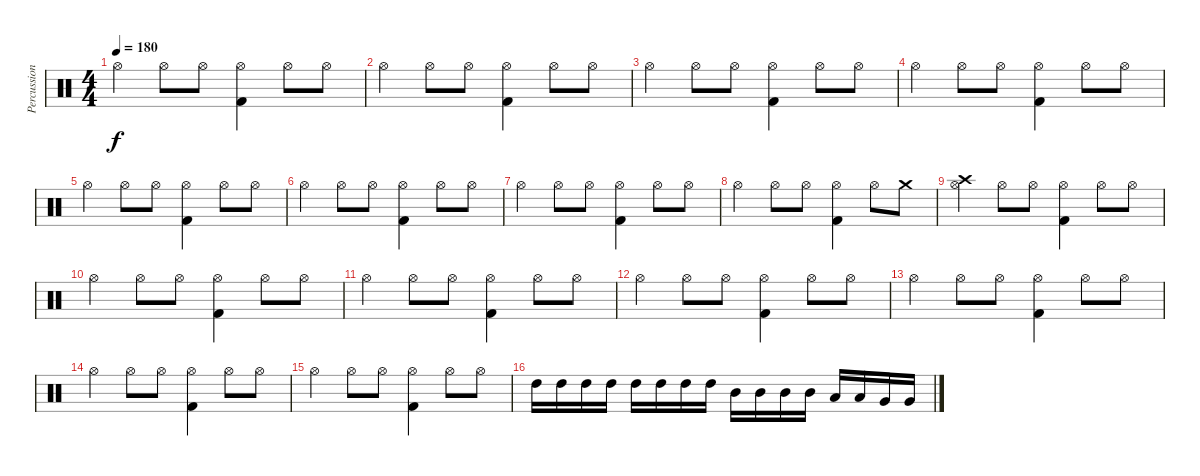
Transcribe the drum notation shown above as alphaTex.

\track ("Percussion" "Percussion") {instrument percussion}
\staff {score}
\articulation defaults
\ts (4 4)
\tempo 180
\clef neutral
\ks c "Hi-Hat (open)".4{dy f} "Hi-Hat (open)".8 "Hi-Hat (open)".8
("Hi-Hat (open)" "Kick (hit) 2").4 "Hi-Hat (open)".8 "Hi-Hat (open)".8 |
"Hi-Hat (open)".4 "Hi-Hat (open)".8 "Hi-Hat (open)".8 ("Hi-Hat (open)" "Kick (hit) 2").4 "Hi-Hat (open)".8 "Hi-Hat (open)".8 |
"Hi-Hat (open)".4 "Hi-Hat (open)".8 "Hi-Hat (open)".8 ("Hi-Hat (open)" "Kick (hit) 2").4 "Hi-Hat (open)".8 "Hi-Hat (open)".8 |
"Hi-Hat (open)".4 "Hi-Hat (open)".8 "Hi-Hat (open)".8 ("Hi-Hat (open)" "Kick (hit) 2").4 "Hi-Hat (open)".8 "Hi-Hat (open)".8 |
"Hi-Hat (open)".4 "Hi-Hat (open)".8 "Hi-Hat (open)".8 ("Hi-Hat (open)" "Kick (hit) 2").4 "Hi-Hat (open)".8 "Hi-Hat (open)".8 |
"Hi-Hat (open)".4 "Hi-Hat (open)".8 "Hi-Hat (open)".8 ("Hi-Hat (open)" "Kick (hit) 2").4 "Hi-Hat (open)".8 "Hi-Hat (open)".8 |
"Hi-Hat (open)".4 "Hi-Hat (open)".8 "Hi-Hat (open)".8 ("Hi-Hat (open)" "Kick (hit) 2").4 "Hi-Hat (open)".8 "Hi-Hat (open)".8 |
"Hi-Hat (open)".4 "Hi-Hat (open)".8 "Hi-Hat (open)".8 ("Hi-Hat (open)" "Kick (hit) 2").4 "Hi-Hat (open)".8 "Crash medium (hit)".8 |
("Crash high (hit)" "Hi-Hat (open)").4 "Hi-Hat (open)".8 "Hi-Hat (open)".8 ("Hi-Hat (open)" "Kick (hit) 2").4 "Hi-Hat (open)".8 "Hi-Hat (open)".8 |
"Hi-Hat (open)".4 "Hi-Hat (open)".8 "Hi-Hat (open)".8 ("Hi-Hat (open)" "Kick (hit) 2").4 "Hi-Hat (open)".8 "Hi-Hat (open)".8 |
"Hi-Hat (open)".4 "Hi-Hat (open)".8 "Hi-Hat (open)".8 ("Hi-Hat (open)" "Kick (hit) 2").4 "Hi-Hat (open)".8 "Hi-Hat (open)".8 |
"Hi-Hat (open)".4 "Hi-Hat (open)".8 "Hi-Hat (open)".8 ("Hi-Hat (open)" "Kick (hit) 2").4 "Hi-Hat (open)".8 "Hi-Hat (open)".8 |
"Hi-Hat (open)".4 "Hi-Hat (open)".8 "Hi-Hat (open)".8 ("Hi-Hat (open)" "Kick (hit) 2").4 "Hi-Hat (open)".8 "Hi-Hat (open)".8 |
"Hi-Hat (open)".4 "Hi-Hat (open)".8 "Hi-Hat (open)".8 ("Hi-Hat (open)" "Kick (hit) 2").4 "Hi-Hat (open)".8 "Hi-Hat (open)".8 |
"Hi-Hat (open)".4 "Hi-Hat (open)".8 "Hi-Hat (open)".8 ("Hi-Hat (open)" "Kick (hit) 2").4 "Hi-Hat (open)".8 "Hi-Hat (open)".8 |
"High Tom (hit)".16 "High Tom (hit)".16 "High Tom (hit)".16 "High Tom (hit)".16 "High Tom (hit)".16 "High Tom (hit)".16 "High Tom (hit)".16 "High Tom (hit)".16 "Mid Tom (hit)".16 "Mid Tom (hit)".16 "Mid Tom (hit)".16 "Mid Tom (hit)".16 "Low Tom (hit)".16 "Low Tom (hit)".16 "Very Low Tom (hit)".16 "Very Low Tom (hit)".16
